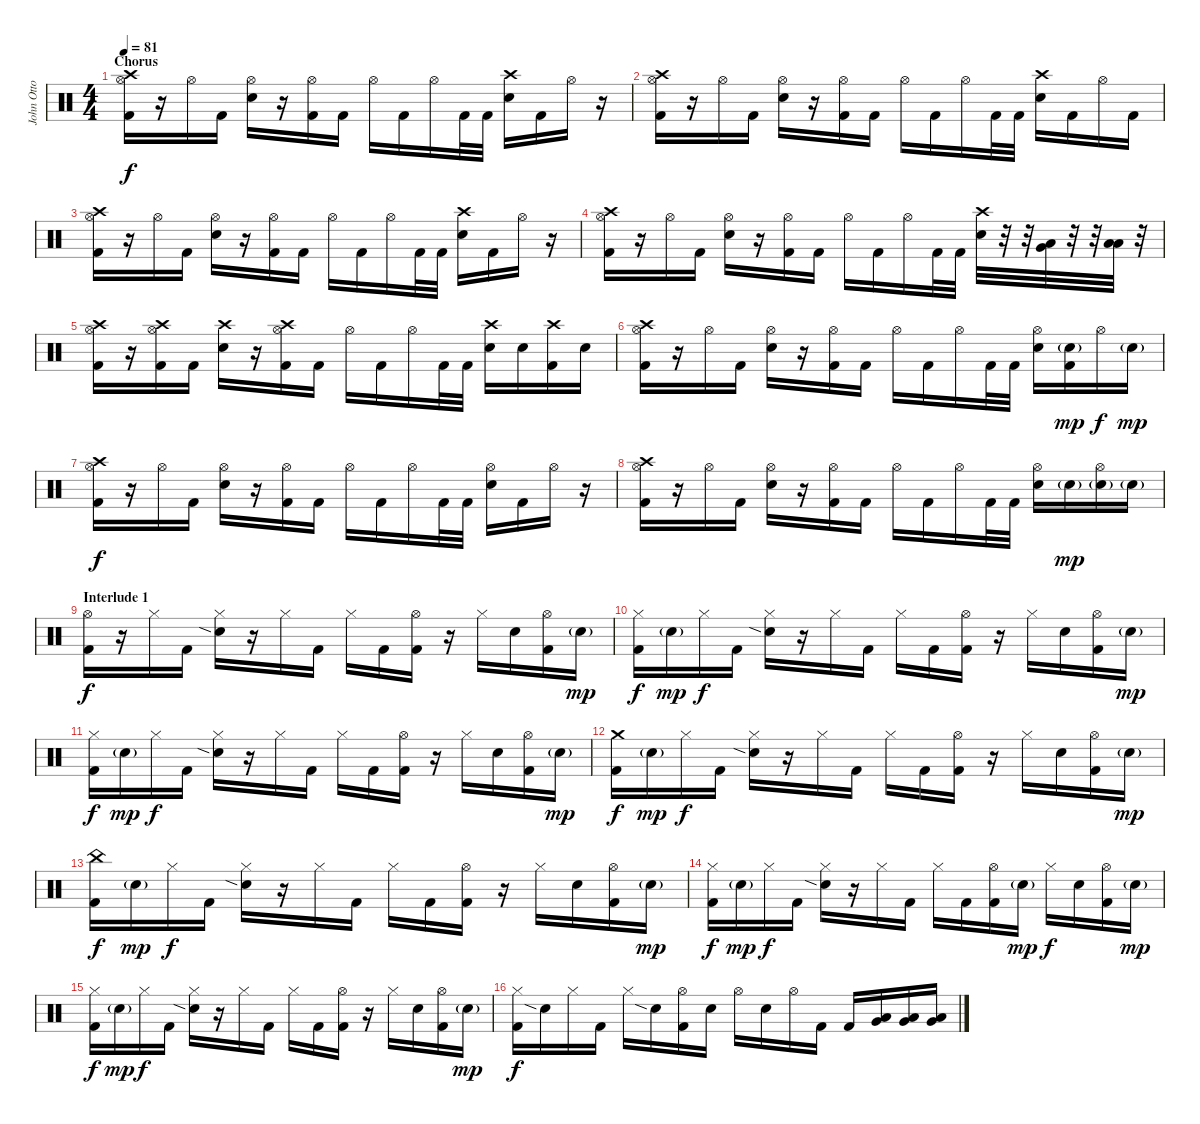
\track ("John Otto" "John Otto") {instrument percussion}
\staff {score}
\articulation defaults
\ts (4 4)
\section ("" "Chorus")
\tempo 81
\clef neutral
\ks c
("Crash high (hit)" "Hi-Hat (open)" "Kick (hit) 2").16{dy f} r.16 "Hi-Hat (open)".16 "Kick (hit) 2".16 ("Hi-Hat (open)" "Snare (hit) 2").16 r.16 ("Hi-Hat (open)" "Kick (hit) 2").16 "Kick (hit) 2".16 "Hi-Hat (open)".16 "Kick (hit) 2".16 "Hi-Hat (open)".16 "Kick (hit) 2".32 "Kick (hit) 2".32 ("Crash high (hit)" "Snare (hit) 2").16 "Kick (hit) 2".16 "Hi-Hat (open)".16 r.16 |
("Crash high (hit)" "Hi-Hat (open)" "Kick (hit) 2").16 r.16 "Hi-Hat (open)".16 "Kick (hit) 2".16 ("Hi-Hat (open)" "Snare (hit) 2").16 r.16 ("Hi-Hat (open)" "Kick (hit) 2").16 "Kick (hit) 2".16 "Hi-Hat (open)".16 "Kick (hit) 2".16 "Hi-Hat (open)".16 "Kick (hit) 2".32 "Kick (hit) 2".32 ("Crash high (hit)" "Snare (hit) 2").16 "Kick (hit) 2".16 "Hi-Hat (open)".16 "Kick (hit) 2".16 |
("Crash high (hit)" "Hi-Hat (open)" "Kick (hit) 2").16 r.16 "Hi-Hat (open)".16 "Kick (hit) 2".16 ("Hi-Hat (open)" "Snare (hit) 2").16 r.16 ("Hi-Hat (open)" "Kick (hit) 2").16 "Kick (hit) 2".16 "Hi-Hat (open)".16 "Kick (hit) 2".16 "Hi-Hat (open)".16 "Kick (hit) 2".32 "Kick (hit) 2".32 ("Crash high (hit)" "Snare (hit) 2").16 "Kick (hit) 2".16 "Hi-Hat (open)".16 r.16 |
("Crash high (hit)" "Hi-Hat (open)" "Kick (hit) 2").16 r.16 "Hi-Hat (open)".16 "Kick (hit) 2".16 ("Hi-Hat (open)" "Snare (hit) 2").16 r.16 ("Hi-Hat (open)" "Kick (hit) 2").16 "Kick (hit) 2".16 "Hi-Hat (open)".16 "Kick (hit) 2".16 "Hi-Hat (open)".16 "Kick (hit) 2".32 "Kick (hit) 2".32 ("Crash high (hit)" "Snare (hit) 2").32 r.32 r.32 ("Very Low Tom (hit)" "Low Floor Tom (hit)").32 r.32 r.32 ("Low Tom (hit)" "Low Floor Tom (hit)").32 r.32 |
("Crash high (hit)" "Hi-Hat (open)" "Kick (hit) 2").16 r.16 ("Crash high (hit)" "Hi-Hat (open)" "Kick (hit) 2").16 "Kick (hit) 2".16 ("Crash high (hit)" "Snare (hit) 2").16 r.16 ("Crash high (hit)" "Hi-Hat (open)" "Kick (hit) 2").16 "Kick (hit) 2".16 "Hi-Hat (open)".16 "Kick (hit) 2".16 "Hi-Hat (open)".16 "Kick (hit) 2".32 "Kick (hit) 2".32 ("Crash high (hit)" "Snare (hit) 2").16 "Snare (hit) 2".16 ("Crash high (hit)" "Kick (hit) 2").16 "Snare (hit) 2".16 |
("Crash high (hit)" "Hi-Hat (open)" "Kick (hit) 2").16 r.16 "Hi-Hat (open)".16 "Kick (hit) 2".16 ("Hi-Hat (open)" "Snare (hit) 2").16 r.16 ("Hi-Hat (open)" "Kick (hit) 2").16 "Kick (hit) 2".16 "Hi-Hat (open)".16 "Kick (hit) 2".16 "Hi-Hat (open)".16 "Kick (hit) 2".32 "Kick (hit) 2".32 ("Hi-Hat (open)" "Snare (hit) 2").16 ("Snare (hit) 2"{g} "Kick (hit) 2").16{dy mp} "Hi-Hat (open)".16{dy f} "Snare (hit) 2"{g}.16{dy mp} |
("Crash high (hit)" "Hi-Hat (open)" "Kick (hit) 2").16{dy f} r.16 "Hi-Hat (open)".16 "Kick (hit) 2".16 ("Hi-Hat (open)" "Snare (hit) 2").16 r.16 ("Hi-Hat (open)" "Kick (hit) 2").16 "Kick (hit) 2".16 "Hi-Hat (open)".16 "Kick (hit) 2".16 "Hi-Hat (open)".16 "Kick (hit) 2".32 "Kick (hit) 2".32 ("Hi-Hat (open)" "Snare (hit) 2").16 "Kick (hit) 2".16 "Hi-Hat (open)".16 r.16 |
("Crash high (hit)" "Hi-Hat (open)" "Kick (hit) 2").16 r.16 "Hi-Hat (open)".16 "Kick (hit) 2".16 ("Hi-Hat (open)" "Snare (hit) 2").16 r.16 ("Hi-Hat (open)" "Kick (hit) 2").16 "Kick (hit) 2".16 "Hi-Hat (open)".16 "Kick (hit) 2".16 "Hi-Hat (open)".16 "Kick (hit) 2".32 "Kick (hit) 2".32 ("Hi-Hat (open)" "Snare (hit) 2").16 "Snare (hit) 2"{g}.16{dy mp} ("Hi-Hat (open)" "Snare (hit) 2"{g}).16 "Snare (hit) 2"{g}.16 |
\section ("" "Interlude 1")
("Hi-Hat (open)" "Kick (hit) 2").16{dy f} r.16 "Hi-Hat (closed)".16 "Kick (hit) 2".16 ("Hi-Hat (closed)" "Snare (hit) 2"{sia}).16 r.16 "Hi-Hat (closed)".16 "Kick (hit) 2".16 "Hi-Hat (closed)".16 "Kick (hit) 2".16 ("Hi-Hat (open)" "Kick (hit) 2").16 r.16 "Hi-Hat (closed)".16 "Snare (hit) 2".16 ("Hi-Hat (open)" "Kick (hit) 2").16 "Snare (hit) 2"{g}.16{dy mp} |
("Hi-Hat (closed)" "Kick (hit) 2").16{dy f} "Snare (hit) 2"{g}.16{dy mp} "Hi-Hat (closed)".16{dy f} "Kick (hit) 2".16 ("Hi-Hat (closed)" "Snare (hit) 2"{sia}).16 r.16 "Hi-Hat (closed)".16 "Kick (hit) 2".16 "Hi-Hat (closed)".16 "Kick (hit) 2".16 ("Hi-Hat (open)" "Kick (hit) 2").16 r.16 "Hi-Hat (closed)".16 "Snare (hit) 2".16 ("Hi-Hat (open)" "Kick (hit) 2").16 "Snare (hit) 2"{g}.16{dy mp} |
("Hi-Hat (closed)" "Kick (hit) 2").16{dy f} "Snare (hit) 2"{g}.16{dy mp} "Hi-Hat (closed)".16{dy f} "Kick (hit) 2".16 ("Hi-Hat (closed)" "Snare (hit) 2"{sia}).16 r.16 "Hi-Hat (closed)".16 "Kick (hit) 2".16 "Hi-Hat (closed)".16 "Kick (hit) 2".16 ("Hi-Hat (open)" "Kick (hit) 2").16 r.16 "Hi-Hat (closed)".16 "Snare (hit) 2".16 ("Hi-Hat (open)" "Kick (hit) 2").16 "Snare (hit) 2"{g}.16{dy mp} |
("Crash medium (hit)" "Kick (hit) 2").16{dy f} "Snare (hit) 2"{g}.16{dy mp} "Hi-Hat (closed)".16{dy f} "Kick (hit) 2".16 ("Hi-Hat (closed)" "Snare (hit) 2"{sia}).16 r.16 "Hi-Hat (closed)".16 "Kick (hit) 2".16 "Hi-Hat (closed)".16 "Kick (hit) 2".16 ("Hi-Hat (open)" "Kick (hit) 2").16 r.16 "Hi-Hat (closed)".16 "Snare (hit) 2".16 ("Hi-Hat (open)" "Kick (hit) 2").16 "Snare (hit) 2"{g}.16{dy mp} |
("China (hit)" "Kick (hit) 2").16{dy f} "Snare (hit) 2"{g}.16{dy mp} "Hi-Hat (closed)".16{dy f} "Kick (hit) 2".16 ("Hi-Hat (closed)" "Snare (hit) 2"{sia}).16 r.16 "Hi-Hat (closed)".16 "Kick (hit) 2".16 "Hi-Hat (closed)".16 "Kick (hit) 2".16 ("Hi-Hat (open)" "Kick (hit) 2").16 r.16 "Hi-Hat (closed)".16 "Snare (hit) 2".16 ("Hi-Hat (open)" "Kick (hit) 2").16 "Snare (hit) 2"{g}.16{dy mp} |
("Hi-Hat (closed)" "Kick (hit) 2").16{dy f} "Snare (hit) 2"{g}.16{dy mp} "Hi-Hat (closed)".16{dy f} "Kick (hit) 2".16 ("Hi-Hat (closed)" "Snare (hit) 2"{sia}).16 r.16 "Hi-Hat (closed)".16 "Kick (hit) 2".16 "Hi-Hat (closed)".16 "Kick (hit) 2".16 ("Hi-Hat (open)" "Kick (hit) 2").16 "Snare (hit) 2"{g}.16{dy mp} "Hi-Hat (closed)".16{dy f} "Snare (hit) 2".16 ("Hi-Hat (open)" "Kick (hit) 2").16 "Snare (hit) 2"{g}.16{dy mp} |
("Hi-Hat (closed)" "Kick (hit) 2").16{dy f} "Snare (hit) 2"{g}.16{dy mp} "Hi-Hat (closed)".16{dy f} "Kick (hit) 2".16 ("Hi-Hat (closed)" "Snare (hit) 2"{sia}).16 r.16 "Hi-Hat (closed)".16 "Kick (hit) 2".16 "Hi-Hat (closed)".16 "Kick (hit) 2".16 ("Hi-Hat (open)" "Kick (hit) 2").16 r.16 "Hi-Hat (closed)".16 "Snare (hit) 2".16 ("Hi-Hat (open)" "Kick (hit) 2").16 "Snare (hit) 2"{g}.16{dy mp} |
("Hi-Hat (closed)" "Kick (hit) 2").16{dy f} "Snare (hit) 2"{sia}.16 "Hi-Hat (closed)".16 "Kick (hit) 2".16 "Hi-Hat (closed)".16 "Snare (hit) 2"{sia}.16 ("Hi-Hat (open)" "Kick (hit) 2").16 "Snare (hit) 2".16 "Hi-Hat (open)".16 "Snare (hit) 2".16 "Hi-Hat (open)".16 "Kick (hit) 2".16 "Kick (hit) 2".16 ("Very Low Tom (hit)" "Low Floor Tom (hit)").16 ("Very Low Tom (hit)" "Low Floor Tom (hit)").16 ("Very Low Tom (hit)" "Low Floor Tom (hit)").16
